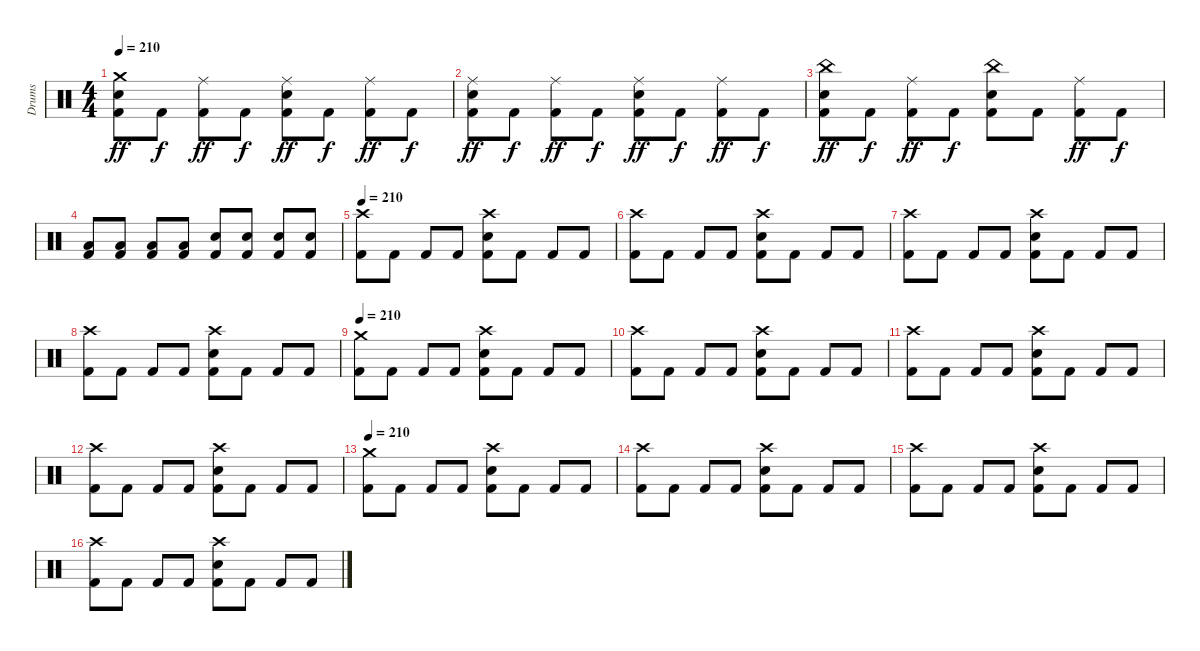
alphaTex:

\track ("Drums" "Drums") {instrument percussion}
\staff {score}
\articulation defaults
\ts (4 4)
\tempo 210
\clef neutral
\ks c
("Crash medium (hit)" "Snare (hit) 2" "Kick (hit) 2").8{dy ff} "Kick (hit) 2".8{dy f} ("Ride (middle)" "Kick (hit) 2").8{dy ff} "Kick (hit) 2".8{dy f} ("Ride (middle)" "Snare (hit) 2" "Kick (hit) 2").8{dy ff} "Kick (hit) 2".8{dy f} ("Ride (middle)" "Kick (hit) 2").8{dy ff} "Kick (hit) 2".8{dy f} |
("Ride (middle)" "Snare (hit) 2" "Kick (hit) 2").8{dy ff} "Kick (hit) 2".8{dy f} ("Ride (middle)" "Kick (hit) 2").8{dy ff} "Kick (hit) 2".8{dy f} ("Ride (middle)" "Snare (hit) 2" "Kick (hit) 2").8{dy ff} "Kick (hit) 2".8{dy f} ("Ride (middle)" "Kick (hit) 2").8{dy ff} "Kick (hit) 2".8{dy f} |
("China (hit)" "Snare (hit) 2" "Kick (hit) 2").8{dy ff} "Kick (hit) 2".8{dy f} ("Ride (middle)" "Kick (hit) 2").8{dy ff} "Kick (hit) 2".8{dy f} ("China (hit)" "Snare (hit) 2" "Kick (hit) 2").8 "Kick (hit) 2".8 ("Ride (middle)" "Kick (hit) 2").8{dy ff} "Kick (hit) 2".8{dy f} |
("Low Tom (hit)" "Kick (hit) 2").8 ("Low Tom (hit)" "Kick (hit) 2").8 ("Low Tom (hit)" "Kick (hit) 2").8 ("Low Tom (hit)" "Kick (hit) 2").8 ("Snare (hit) 2" "Kick (hit) 2").8 ("Snare (hit) 2" "Kick (hit) 2").8 ("Snare (hit) 2" "Kick (hit) 2").8 ("Snare (hit) 2" "Kick (hit) 2").8 |
\tempo 210
("Crash high (hit)" "Kick (hit) 2").8 "Kick (hit) 2".8 "Kick (hit) 2".8 "Kick (hit) 2".8 ("Crash high (hit)" "Snare (hit) 2" "Kick (hit) 2").8 "Kick (hit) 2".8 "Kick (hit) 2".8 "Kick (hit) 2".8 |
("Crash high (hit)" "Kick (hit) 2").8 "Kick (hit) 2".8 "Kick (hit) 2".8 "Kick (hit) 2".8 ("Crash high (hit)" "Snare (hit) 2" "Kick (hit) 2").8 "Kick (hit) 2".8 "Kick (hit) 2".8 "Kick (hit) 2".8 |
("Crash high (hit)" "Kick (hit) 2").8 "Kick (hit) 2".8 "Kick (hit) 2".8 "Kick (hit) 2".8 ("Crash high (hit)" "Snare (hit) 2" "Kick (hit) 2").8 "Kick (hit) 2".8 "Kick (hit) 2".8 "Kick (hit) 2".8 |
("Crash high (hit)" "Kick (hit) 2").8 "Kick (hit) 2".8 "Kick (hit) 2".8 "Kick (hit) 2".8 ("Crash high (hit)" "Snare (hit) 2" "Kick (hit) 2").8 "Kick (hit) 2".8 "Kick (hit) 2".8 "Kick (hit) 2".8 |
\tempo 210
("Crash medium (hit)" "Kick (hit) 2").8 "Kick (hit) 2".8 "Kick (hit) 2".8 "Kick (hit) 2".8 ("Crash high (hit)" "Snare (hit) 2" "Kick (hit) 2").8 "Kick (hit) 2".8 "Kick (hit) 2".8 "Kick (hit) 2".8 |
("Crash high (hit)" "Kick (hit) 2").8 "Kick (hit) 2".8 "Kick (hit) 2".8 "Kick (hit) 2".8 ("Crash high (hit)" "Snare (hit) 2" "Kick (hit) 2").8 "Kick (hit) 2".8 "Kick (hit) 2".8 "Kick (hit) 2".8 |
("Crash high (hit)" "Kick (hit) 2").8 "Kick (hit) 2".8 "Kick (hit) 2".8 "Kick (hit) 2".8 ("Crash high (hit)" "Snare (hit) 2" "Kick (hit) 2").8 "Kick (hit) 2".8 "Kick (hit) 2".8 "Kick (hit) 2".8 |
("Crash high (hit)" "Kick (hit) 2").8 "Kick (hit) 2".8 "Kick (hit) 2".8 "Kick (hit) 2".8 ("Crash high (hit)" "Snare (hit) 2" "Kick (hit) 2").8 "Kick (hit) 2".8 "Kick (hit) 2".8 "Kick (hit) 2".8 |
\tempo 210
("Crash medium (hit)" "Kick (hit) 2").8 "Kick (hit) 2".8 "Kick (hit) 2".8 "Kick (hit) 2".8 ("Crash high (hit)" "Snare (hit) 2" "Kick (hit) 2").8 "Kick (hit) 2".8 "Kick (hit) 2".8 "Kick (hit) 2".8 |
("Crash high (hit)" "Kick (hit) 2").8 "Kick (hit) 2".8 "Kick (hit) 2".8 "Kick (hit) 2".8 ("Crash high (hit)" "Snare (hit) 2" "Kick (hit) 2").8 "Kick (hit) 2".8 "Kick (hit) 2".8 "Kick (hit) 2".8 |
("Crash high (hit)" "Kick (hit) 2").8 "Kick (hit) 2".8 "Kick (hit) 2".8 "Kick (hit) 2".8 ("Crash high (hit)" "Snare (hit) 2" "Kick (hit) 2").8 "Kick (hit) 2".8 "Kick (hit) 2".8 "Kick (hit) 2".8 |
("Crash high (hit)" "Kick (hit) 2").8 "Kick (hit) 2".8 "Kick (hit) 2".8 "Kick (hit) 2".8 ("Crash high (hit)" "Snare (hit) 2" "Kick (hit) 2").8 "Kick (hit) 2".8 "Kick (hit) 2".8 "Kick (hit) 2".8
